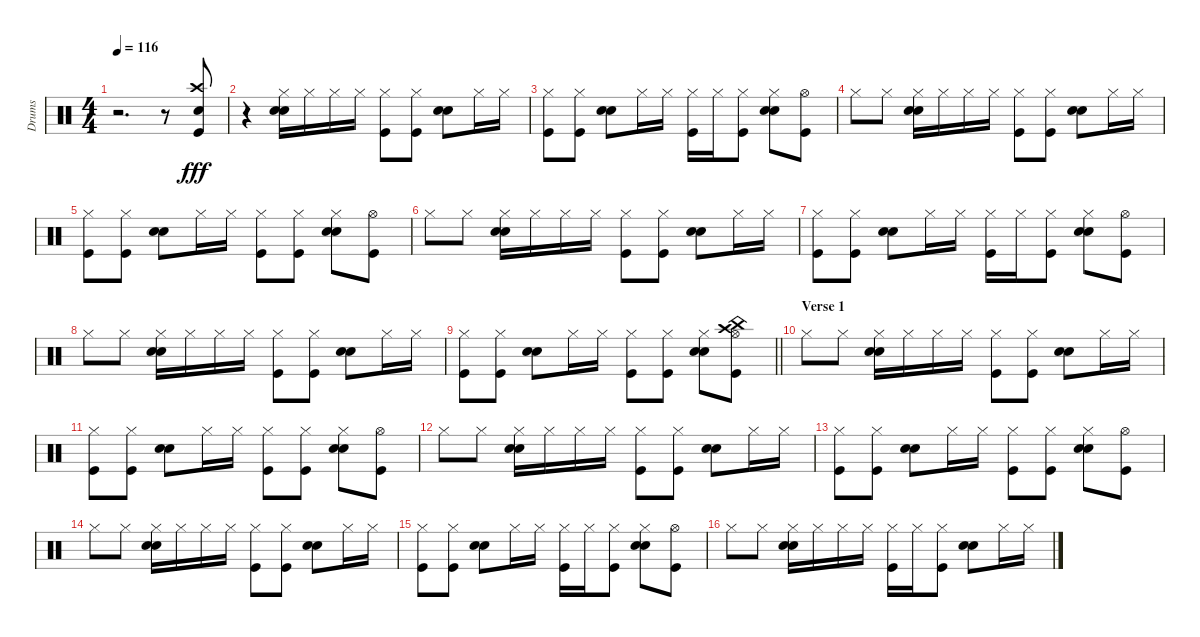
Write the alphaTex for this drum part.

\track ("Drums" "Drums") {instrument percussion}
\staff {score}
\articulation defaults
\ts (4 4)
\tempo 116
\clef neutral
\ks c
r.2{d dy fff} r.8 ("Snare (hit) 2" "Crash high (hit)" "Kick (hit)").8 |
r.4 ("Snare (hit) 2" "Electric Snare (hit)" "Hi-Hat (closed)").16 "Hi-Hat (closed)".16 "Hi-Hat (closed)".16 "Hi-Hat (closed)".16 ("Hi-Hat (closed)" "Kick (hit)").8 ("Kick (hit)" "Hi-Hat (closed)").8 ("Snare (hit) 2" "Electric Snare (hit)").8 "Hi-Hat (closed)".16 "Hi-Hat (closed)".16 |
("Hi-Hat (closed)" "Kick (hit)").8 ("Hi-Hat (closed)" "Kick (hit)").8 ("Snare (hit) 2" "Electric Snare (hit)").8 "Hi-Hat (closed)".16 "Hi-Hat (closed)".16 ("Hi-Hat (closed)" "Kick (hit)").16 "Hi-Hat (closed)".16 ("Kick (hit)" "Hi-Hat (closed)").8 ("Snare (hit) 2" "Electric Snare (hit)" "Hi-Hat (closed)").8 ("Kick (hit)" "Hi-Hat (open)").8 |
"Hi-Hat (closed)".8 "Hi-Hat (closed)".8 ("Snare (hit) 2" "Electric Snare (hit)" "Hi-Hat (closed)").16 "Hi-Hat (closed)".16 "Hi-Hat (closed)".16 "Hi-Hat (closed)".16 ("Hi-Hat (closed)" "Kick (hit)").8 ("Hi-Hat (closed)" "Kick (hit)").8 ("Snare (hit) 2" "Electric Snare (hit)").8 "Hi-Hat (closed)".16 "Hi-Hat (closed)".16 |
("Hi-Hat (closed)" "Kick (hit)").8 ("Hi-Hat (closed)" "Kick (hit)").8 ("Snare (hit) 2" "Electric Snare (hit)").8 "Hi-Hat (closed)".16 "Hi-Hat (closed)".16 ("Hi-Hat (closed)" "Kick (hit)").8 ("Hi-Hat (closed)" "Kick (hit)").8 ("Hi-Hat (closed)" "Snare (hit) 2" "Electric Snare (hit)").8 ("Hi-Hat (open)" "Kick (hit)").8 |
"Hi-Hat (closed)".8 "Hi-Hat (closed)".8 ("Snare (hit) 2" "Electric Snare (hit)" "Hi-Hat (closed)").16 "Hi-Hat (closed)".16 "Hi-Hat (closed)".16 "Hi-Hat (closed)".16 ("Hi-Hat (closed)" "Kick (hit)").8 ("Hi-Hat (closed)" "Kick (hit)").8 ("Snare (hit) 2" "Electric Snare (hit)").8 "Hi-Hat (closed)".16 "Hi-Hat (closed)".16 |
("Hi-Hat (closed)" "Kick (hit)").8 ("Hi-Hat (closed)" "Kick (hit)").8 ("Snare (hit) 2" "Electric Snare (hit)").8 "Hi-Hat (closed)".16 "Hi-Hat (closed)".16 ("Hi-Hat (closed)" "Kick (hit)").16 "Hi-Hat (closed)".16 ("Kick (hit)" "Hi-Hat (closed)").8 ("Snare (hit) 2" "Electric Snare (hit)" "Hi-Hat (closed)").8 ("Kick (hit)" "Hi-Hat (open)").8 |
"Hi-Hat (closed)".8 "Hi-Hat (closed)".8 ("Snare (hit) 2" "Electric Snare (hit)" "Hi-Hat (closed)").16 "Hi-Hat (closed)".16 "Hi-Hat (closed)".16 "Hi-Hat (closed)".16 ("Hi-Hat (closed)" "Kick (hit)").8 ("Hi-Hat (closed)" "Kick (hit)").8 ("Snare (hit) 2" "Electric Snare (hit)").8 "Hi-Hat (closed)".16 "Hi-Hat (closed)".16 |
\barLineRight lightlight
("Hi-Hat (closed)" "Kick (hit)").8 ("Hi-Hat (closed)" "Kick (hit)").8 ("Snare (hit) 2" "Electric Snare (hit)").8 "Hi-Hat (closed)".16 "Hi-Hat (closed)".16 ("Hi-Hat (closed)" "Kick (hit)").8 ("Kick (hit)" "Hi-Hat (closed)").8 ("Snare (hit) 2" "Electric Snare (hit)" "Hi-Hat (closed)").8 ("Hi-Hat (open)" "Crash high (hit)" "China (hit)" "Kick (hit)").8 |
\section ("" "Verse 1")
"Hi-Hat (closed)".8 "Hi-Hat (closed)".8 ("Snare (hit) 2" "Electric Snare (hit)" "Hi-Hat (closed)").16 "Hi-Hat (closed)".16 "Hi-Hat (closed)".16 "Hi-Hat (closed)".16 ("Hi-Hat (closed)" "Kick (hit)").8 ("Kick (hit)" "Hi-Hat (closed)").8 ("Snare (hit) 2" "Electric Snare (hit)").8 "Hi-Hat (closed)".16 "Hi-Hat (closed)".16 |
("Hi-Hat (closed)" "Kick (hit)").8 ("Hi-Hat (closed)" "Kick (hit)").8 ("Snare (hit) 2" "Electric Snare (hit)").8 "Hi-Hat (closed)".16 "Hi-Hat (closed)".16 ("Hi-Hat (closed)" "Kick (hit)").8 ("Hi-Hat (closed)" "Kick (hit)").8 ("Snare (hit) 2" "Electric Snare (hit)" "Hi-Hat (closed)").8 ("Hi-Hat (open)" "Kick (hit)").8 |
"Hi-Hat (closed)".8 "Hi-Hat (closed)".8 ("Snare (hit) 2" "Electric Snare (hit)" "Hi-Hat (closed)").16 "Hi-Hat (closed)".16 "Hi-Hat (closed)".16 "Hi-Hat (closed)".16 ("Kick (hit)" "Hi-Hat (closed)").8 ("Kick (hit)" "Hi-Hat (closed)").8 ("Snare (hit) 2" "Electric Snare (hit)").8 "Hi-Hat (closed)".16 "Hi-Hat (closed)".16 |
("Hi-Hat (closed)" "Kick (hit)").8 ("Hi-Hat (closed)" "Kick (hit)").8 ("Snare (hit) 2" "Electric Snare (hit)").8 "Hi-Hat (closed)".16 "Hi-Hat (closed)".16 ("Hi-Hat (closed)" "Kick (hit)").8 ("Hi-Hat (closed)" "Kick (hit)").8 ("Hi-Hat (closed)" "Snare (hit) 2" "Electric Snare (hit)").8 ("Hi-Hat (open)" "Kick (hit)").8 |
"Hi-Hat (closed)".8 "Hi-Hat (closed)".8 ("Snare (hit) 2" "Electric Snare (hit)" "Hi-Hat (closed)").16 "Hi-Hat (closed)".16 "Hi-Hat (closed)".16 "Hi-Hat (closed)".16 ("Hi-Hat (closed)" "Kick (hit)").8 ("Hi-Hat (closed)" "Kick (hit)").8 ("Snare (hit) 2" "Electric Snare (hit)").8 "Hi-Hat (closed)".16 "Hi-Hat (closed)".16 |
("Hi-Hat (closed)" "Kick (hit)").8 ("Hi-Hat (closed)" "Kick (hit)").8 ("Snare (hit) 2" "Electric Snare (hit)").8 "Hi-Hat (closed)".16 "Hi-Hat (closed)".16 ("Hi-Hat (closed)" "Kick (hit)").16 "Hi-Hat (closed)".16 ("Hi-Hat (closed)" "Kick (hit)").8 ("Hi-Hat (closed)" "Snare (hit) 2" "Electric Snare (hit)").8 ("Hi-Hat (open)" "Kick (hit)").8 |
"Hi-Hat (closed)".8 "Hi-Hat (closed)".8 ("Snare (hit) 2" "Electric Snare (hit)" "Hi-Hat (closed)").16 "Hi-Hat (closed)".16 "Hi-Hat (closed)".16 "Hi-Hat (closed)".16 ("Hi-Hat (closed)" "Kick (hit)").16 "Hi-Hat (closed)".16 ("Hi-Hat (closed)" "Kick (hit)").8 ("Snare (hit) 2" "Electric Snare (hit)").8 "Hi-Hat (closed)".16 "Hi-Hat (closed)".16
